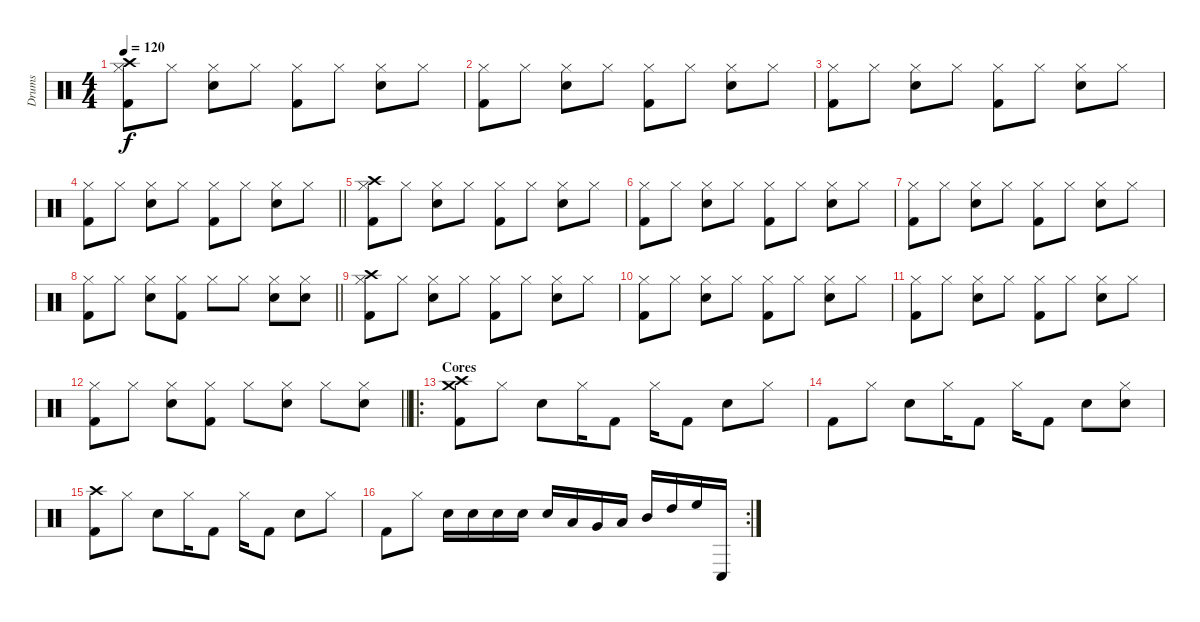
\track ("Drums" "Drums") {instrument percussion}
\staff {score}
\articulation defaults
\ts (4 4)
\tempo 120
\clef neutral
\ks c
("Kick (hit) 2" "Hi-Hat (closed)" "Crash high (hit)").8{dy f} "Hi-Hat (closed)".8 ("Snare (hit) 2" "Hi-Hat (closed)").8 "Hi-Hat (closed)".8 ("Kick (hit) 2" "Hi-Hat (closed)").8 "Hi-Hat (closed)".8 ("Snare (hit) 2" "Hi-Hat (closed)").8 "Hi-Hat (closed)".8 |
("Kick (hit) 2" "Hi-Hat (closed)").8 "Hi-Hat (closed)".8 ("Snare (hit) 2" "Hi-Hat (closed)").8 "Hi-Hat (closed)".8 ("Kick (hit) 2" "Hi-Hat (closed)").8 "Hi-Hat (closed)".8 ("Snare (hit) 2" "Hi-Hat (closed)").8 "Hi-Hat (closed)".8 |
("Kick (hit) 2" "Hi-Hat (closed)").8 "Hi-Hat (closed)".8 ("Snare (hit) 2" "Hi-Hat (closed)").8 "Hi-Hat (closed)".8 ("Kick (hit) 2" "Hi-Hat (closed)").8 "Hi-Hat (closed)".8 ("Snare (hit) 2" "Hi-Hat (closed)").8 "Hi-Hat (closed)".8 |
\barLineRight lightlight
("Kick (hit) 2" "Hi-Hat (closed)").8 "Hi-Hat (closed)".8 ("Snare (hit) 2" "Hi-Hat (closed)").8 "Hi-Hat (closed)".8 ("Kick (hit) 2" "Hi-Hat (closed)").8 "Hi-Hat (closed)".8 ("Snare (hit) 2" "Hi-Hat (closed)").8 "Hi-Hat (closed)".8 |
("Kick (hit) 2" "Hi-Hat (closed)" "Crash high (hit)").8 "Hi-Hat (closed)".8 ("Snare (hit) 2" "Hi-Hat (closed)").8 "Hi-Hat (closed)".8 ("Kick (hit) 2" "Hi-Hat (closed)").8 "Hi-Hat (closed)".8 ("Snare (hit) 2" "Hi-Hat (closed)").8 "Hi-Hat (closed)".8 |
("Kick (hit) 2" "Hi-Hat (closed)").8 "Hi-Hat (closed)".8 ("Snare (hit) 2" "Hi-Hat (closed)").8 "Hi-Hat (closed)".8 ("Kick (hit) 2" "Hi-Hat (closed)").8 "Hi-Hat (closed)".8 ("Snare (hit) 2" "Hi-Hat (closed)").8 "Hi-Hat (closed)".8 |
("Kick (hit) 2" "Hi-Hat (closed)").8 "Hi-Hat (closed)".8 ("Snare (hit) 2" "Hi-Hat (closed)").8 "Hi-Hat (closed)".8 ("Kick (hit) 2" "Hi-Hat (closed)").8 "Hi-Hat (closed)".8 ("Snare (hit) 2" "Hi-Hat (closed)").8 "Hi-Hat (closed)".8 |
\barLineRight lightlight
("Kick (hit) 2" "Hi-Hat (closed)").8 "Hi-Hat (closed)".8 ("Snare (hit) 2" "Hi-Hat (closed)").8 ("Kick (hit) 2" "Hi-Hat (closed)").8 "Hi-Hat (closed)".8 "Hi-Hat (closed)".8 ("Snare (hit) 2" "Hi-Hat (closed)").8 ("Snare (hit) 2" "Hi-Hat (closed)").8 |
("Kick (hit) 2" "Hi-Hat (closed)" "Crash high (hit)").8 "Hi-Hat (closed)".8 ("Snare (hit) 2" "Hi-Hat (closed)").8 "Hi-Hat (closed)".8 ("Kick (hit) 2" "Hi-Hat (closed)").8 "Hi-Hat (closed)".8 ("Snare (hit) 2" "Hi-Hat (closed)").8 "Hi-Hat (closed)".8 |
("Kick (hit) 2" "Hi-Hat (closed)").8 "Hi-Hat (closed)".8 ("Snare (hit) 2" "Hi-Hat (closed)").8 "Hi-Hat (closed)".8 ("Kick (hit) 2" "Hi-Hat (closed)").8 "Hi-Hat (closed)".8 ("Snare (hit) 2" "Hi-Hat (closed)").8 "Hi-Hat (closed)".8 |
("Kick (hit) 2" "Hi-Hat (closed)").8 "Hi-Hat (closed)".8 ("Snare (hit) 2" "Hi-Hat (closed)").8 "Hi-Hat (closed)".8 ("Kick (hit) 2" "Hi-Hat (closed)").8 "Hi-Hat (closed)".8 ("Snare (hit) 2" "Hi-Hat (closed)").8 "Hi-Hat (closed)".8 |
\barLineRight lightlight
("Kick (hit) 2" "Hi-Hat (closed)").8 "Hi-Hat (closed)".8 ("Snare (hit) 2" "Hi-Hat (closed)").8 ("Kick (hit) 2" "Hi-Hat (closed)").8 "Hi-Hat (closed)".8 ("Snare (hit) 2" "Hi-Hat (closed)").8 "Hi-Hat (closed)".8 ("Snare (hit) 2" "Hi-Hat (closed)").8 |
\ro
\section ("" "Cores")
("Kick (hit) 2" "Crash medium (hit)" "Crash high (hit)").8 "Hi-Hat (closed)".8 "Snare (hit) 2".8 "Hi-Hat (closed)".16 "Kick (hit) 2".8 "Hi-Hat (closed)".16 "Kick (hit) 2".8 "Snare (hit) 2".8 "Hi-Hat (closed)".8 |
"Kick (hit) 2".8 "Hi-Hat (closed)".8 "Snare (hit) 2".8 "Hi-Hat (closed)".16 "Kick (hit) 2".8 "Hi-Hat (closed)".16 "Kick (hit) 2".8 "Snare (hit) 2".8 ("Snare (hit) 2" "Hi-Hat (closed)").8 |
("Kick (hit) 2" "Crash high (hit)").8 "Hi-Hat (closed)".8 "Snare (hit) 2".8 "Hi-Hat (closed)".16 "Kick (hit) 2".8 "Hi-Hat (closed)".16 "Kick (hit) 2".8 "Snare (hit) 2".8 "Hi-Hat (closed)".8 |
\rc 2 "Kick (hit) 2".8 "Hi-Hat (closed)".8 "Snare (hit) 2".16 "Snare (hit) 2".16 "Snare (hit) 2".16 "Snare (hit) 2".16 "Snare (hit) 2".16 "Low Floor Tom (hit)".16 "Very Low Tom (hit)".16 "Low Tom (hit)".16 "Mid Tom (hit)".16 "High Tom (hit)".16 "High Floor Tom (hit)".16 "Conga low (hit)".16
